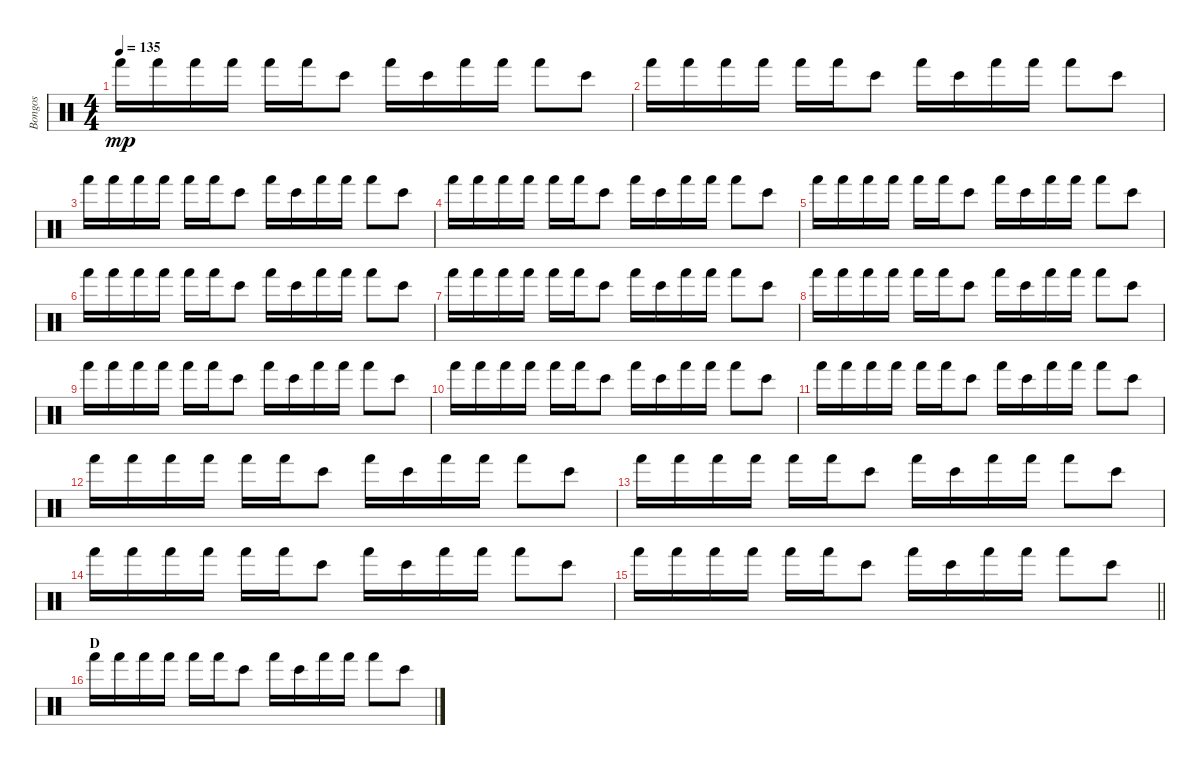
\track ("Bongos" "Bongos") {instrument percussion}
\staff {score}
\articulation defaults
\ts (4 4)
\tempo 135
\clef neutral
\ks c "Hand (hit)".16{dy mp} "Hand (hit)".16 "Hand (hit)".16 "Hand (hit)".16 "Hand (hit)".16 "Hand (hit)".16 "Bongo High (hit)".8 "Hand (hit)".16 "Bongo High (hit)".16 "Hand (hit)".16 "Hand (hit)".16 "Hand (hit)".8 "Bongo High (hit)".8
|
"Hand (hit)".16 "Hand (hit)".16 "Hand (hit)".16 "Hand (hit)".16 "Hand (hit)".16 "Hand (hit)".16 "Bongo High (hit)".8 "Hand (hit)".16 "Bongo High (hit)".16 "Hand (hit)".16 "Hand (hit)".16 "Hand (hit)".8 "Bongo High (hit)".8 |
"Hand (hit)".16 "Hand (hit)".16 "Hand (hit)".16 "Hand (hit)".16 "Hand (hit)".16 "Hand (hit)".16 "Bongo High (hit)".8 "Hand (hit)".16 "Bongo High (hit)".16 "Hand (hit)".16 "Hand (hit)".16 "Hand (hit)".8 "Bongo High (hit)".8 |
"Hand (hit)".16 "Hand (hit)".16 "Hand (hit)".16 "Hand (hit)".16 "Hand (hit)".16 "Hand (hit)".16 "Bongo High (hit)".8 "Hand (hit)".16 "Bongo High (hit)".16 "Hand (hit)".16 "Hand (hit)".16 "Hand (hit)".8 "Bongo High (hit)".8 |
"Hand (hit)".16 "Hand (hit)".16 "Hand (hit)".16 "Hand (hit)".16 "Hand (hit)".16 "Hand (hit)".16 "Bongo High (hit)".8 "Hand (hit)".16 "Bongo High (hit)".16 "Hand (hit)".16 "Hand (hit)".16 "Hand (hit)".8 "Bongo High (hit)".8 |
"Hand (hit)".16 "Hand (hit)".16 "Hand (hit)".16 "Hand (hit)".16 "Hand (hit)".16 "Hand (hit)".16 "Bongo High (hit)".8 "Hand (hit)".16 "Bongo High (hit)".16 "Hand (hit)".16 "Hand (hit)".16 "Hand (hit)".8 "Bongo High (hit)".8 |
"Hand (hit)".16 "Hand (hit)".16 "Hand (hit)".16 "Hand (hit)".16 "Hand (hit)".16 "Hand (hit)".16 "Bongo High (hit)".8 "Hand (hit)".16 "Bongo High (hit)".16 "Hand (hit)".16 "Hand (hit)".16 "Hand (hit)".8 "Bongo High (hit)".8 |
"Hand (hit)".16 "Hand (hit)".16 "Hand (hit)".16 "Hand (hit)".16 "Hand (hit)".16 "Hand (hit)".16 "Bongo High (hit)".8 "Hand (hit)".16 "Bongo High (hit)".16 "Hand (hit)".16 "Hand (hit)".16 "Hand (hit)".8 "Bongo High (hit)".8 |
"Hand (hit)".16 "Hand (hit)".16 "Hand (hit)".16 "Hand (hit)".16 "Hand (hit)".16 "Hand (hit)".16 "Bongo High (hit)".8 "Hand (hit)".16 "Bongo High (hit)".16 "Hand (hit)".16 "Hand (hit)".16 "Hand (hit)".8 "Bongo High (hit)".8 |
"Hand (hit)".16 "Hand (hit)".16 "Hand (hit)".16 "Hand (hit)".16 "Hand (hit)".16 "Hand (hit)".16 "Bongo High (hit)".8 "Hand (hit)".16 "Bongo High (hit)".16 "Hand (hit)".16 "Hand (hit)".16 "Hand (hit)".8 "Bongo High (hit)".8 |
"Hand (hit)".16 "Hand (hit)".16 "Hand (hit)".16 "Hand (hit)".16 "Hand (hit)".16 "Hand (hit)".16 "Bongo High (hit)".8 "Hand (hit)".16 "Bongo High (hit)".16 "Hand (hit)".16 "Hand (hit)".16 "Hand (hit)".8 "Bongo High (hit)".8 |
"Hand (hit)".16 "Hand (hit)".16 "Hand (hit)".16 "Hand (hit)".16 "Hand (hit)".16 "Hand (hit)".16 "Bongo High (hit)".8 "Hand (hit)".16 "Bongo High (hit)".16 "Hand (hit)".16 "Hand (hit)".16 "Hand (hit)".8 "Bongo High (hit)".8 |
"Hand (hit)".16 "Hand (hit)".16 "Hand (hit)".16 "Hand (hit)".16 "Hand (hit)".16 "Hand (hit)".16 "Bongo High (hit)".8 "Hand (hit)".16 "Bongo High (hit)".16 "Hand (hit)".16 "Hand (hit)".16 "Hand (hit)".8 "Bongo High (hit)".8 |
"Hand (hit)".16 "Hand (hit)".16 "Hand (hit)".16 "Hand (hit)".16 "Hand (hit)".16 "Hand (hit)".16 "Bongo High (hit)".8 "Hand (hit)".16 "Bongo High (hit)".16 "Hand (hit)".16 "Hand (hit)".16 "Hand (hit)".8 "Bongo High (hit)".8 |
\barLineRight lightlight "Hand (hit)".16 "Hand (hit)".16 "Hand (hit)".16 "Hand (hit)".16 "Hand (hit)".16 "Hand (hit)".16 "Bongo High (hit)".8 "Hand (hit)".16 "Bongo High (hit)".16 "Hand (hit)".16 "Hand (hit)".16 "Hand (hit)".8 "Bongo High (hit)".8
|
\section ("" "D")
"Hand (hit)".16 "Hand (hit)".16 "Hand (hit)".16 "Hand (hit)".16 "Hand (hit)".16 "Hand (hit)".16 "Bongo High (hit)".8 "Hand (hit)".16 "Bongo High (hit)".16 "Hand (hit)".16 "Hand (hit)".16 "Hand (hit)".8 "Bongo High (hit)".8
